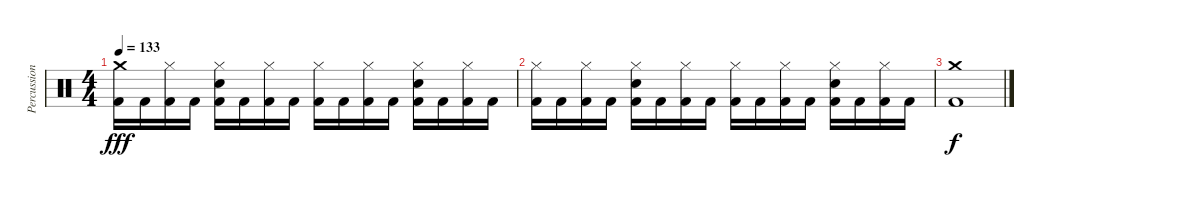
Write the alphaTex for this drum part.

\track ("Percussion" "Percussion") {instrument percussion}
\staff {score}
\articulation defaults
\ts (4 4)
\tempo 133
\clef neutral
\ks c
("Crash medium (hit)" "Kick (hit) 2").16{dy fff} "Kick (hit) 2".16 ("Hi-Hat (closed)" "Kick (hit) 2").16 "Kick (hit) 2".16 ("Hi-Hat (closed)" "Electric Snare (hit)" "Kick (hit) 2").16 "Kick (hit) 2".16 ("Hi-Hat (closed)" "Kick (hit) 2").16 "Kick (hit) 2".16 ("Hi-Hat (closed)" "Kick (hit) 2").16 "Kick (hit) 2".16 ("Hi-Hat (closed)" "Kick (hit) 2").16 "Kick (hit) 2".16 ("Hi-Hat (closed)" "Electric Snare (hit)" "Kick (hit) 2").16 "Kick (hit) 2".16 ("Hi-Hat (closed)" "Kick (hit) 2").16 "Kick (hit) 2".16 |
("Hi-Hat (closed)" "Kick (hit) 2").16 "Kick (hit) 2".16 ("Hi-Hat (closed)" "Kick (hit) 2").16 "Kick (hit) 2".16 ("Hi-Hat (closed)" "Electric Snare (hit)" "Kick (hit) 2").16 "Kick (hit) 2".16 ("Hi-Hat (closed)" "Kick (hit) 2").16 "Kick (hit) 2".16 ("Hi-Hat (closed)" "Kick (hit) 2").16 "Kick (hit) 2".16 ("Hi-Hat (closed)" "Kick (hit) 2").16 "Kick (hit) 2".16 ("Hi-Hat (closed)" "Electric Snare (hit)" "Kick (hit) 2").16 "Kick (hit) 2".16 ("Hi-Hat (closed)" "Kick (hit) 2").16 "Kick (hit) 2".16 |
("Crash medium (hit)" "Kick (hit) 2").1{dy f}
